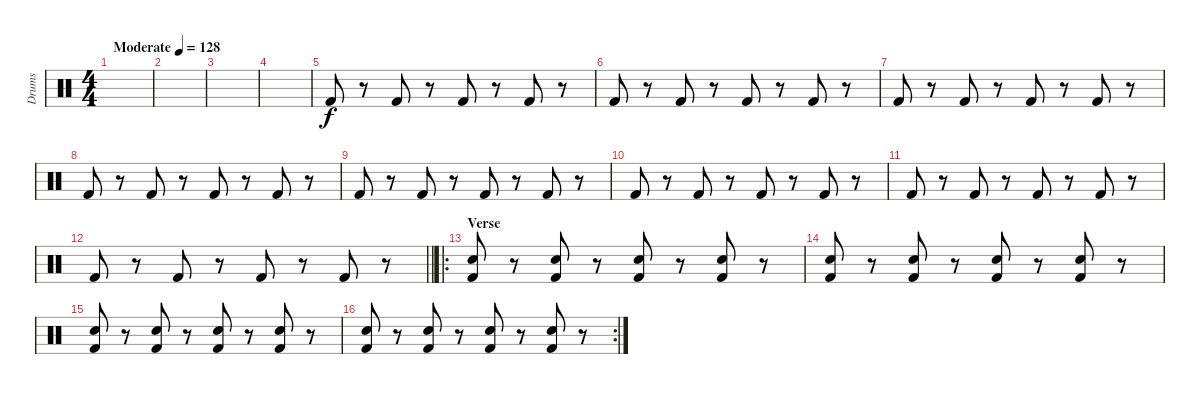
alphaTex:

\track ("Drums" "Drums") {instrument percussion}
\staff {score}
\articulation defaults
\ts (4 4)
\tempo (128 "Moderate")
\clef neutral
\ks c
|
|
|
|
"Kick (hit) 2".8 r.8 "Kick (hit) 2".8 r.8 "Kick (hit) 2".8 r.8 "Kick (hit) 2".8 r.8 |
"Kick (hit) 2".8 r.8 "Kick (hit) 2".8 r.8 "Kick (hit) 2".8 r.8 "Kick (hit) 2".8 r.8 |
"Kick (hit) 2".8 r.8 "Kick (hit) 2".8 r.8 "Kick (hit) 2".8 r.8 "Kick (hit) 2".8 r.8 |
"Kick (hit) 2".8 r.8 "Kick (hit) 2".8 r.8 "Kick (hit) 2".8 r.8 "Kick (hit) 2".8 r.8 |
"Kick (hit) 2".8 r.8 "Kick (hit) 2".8 r.8 "Kick (hit) 2".8 r.8 "Kick (hit) 2".8 r.8 |
"Kick (hit) 2".8 r.8 "Kick (hit) 2".8 r.8 "Kick (hit) 2".8 r.8 "Kick (hit) 2".8 r.8 |
"Kick (hit) 2".8 r.8 "Kick (hit) 2".8 r.8 "Kick (hit) 2".8 r.8 "Kick (hit) 2".8 r.8 |
\barLineRight lightlight "Kick (hit) 2".8
r.8 "Kick (hit) 2".8 r.8 "Kick (hit) 2".8 r.8 "Kick (hit) 2".8 r.8 |
\ro
\section ("" "Verse")
("Hand Clap (hit)" "Kick (hit) 2").8 r.8 ("Hand Clap (hit)" "Kick (hit) 2").8 r.8 ("Hand Clap (hit)" "Kick (hit) 2").8 r.8 ("Hand Clap (hit)" "Kick (hit) 2").8 r.8 |
("Hand Clap (hit)" "Kick (hit) 2").8 r.8 ("Hand Clap (hit)" "Kick (hit) 2").8 r.8 ("Hand Clap (hit)" "Kick (hit) 2").8 r.8 ("Hand Clap (hit)" "Kick (hit) 2").8 r.8 |
("Hand Clap (hit)" "Kick (hit) 2").8 r.8 ("Hand Clap (hit)" "Kick (hit) 2").8 r.8 ("Hand Clap (hit)" "Kick (hit) 2").8 r.8 ("Hand Clap (hit)" "Kick (hit) 2").8 r.8 |
\rc 2
("Hand Clap (hit)" "Kick (hit) 2").8 r.8 ("Hand Clap (hit)" "Kick (hit) 2").8 r.8 ("Hand Clap (hit)" "Kick (hit) 2").8 r.8 ("Hand Clap (hit)" "Kick (hit) 2").8 r.8
